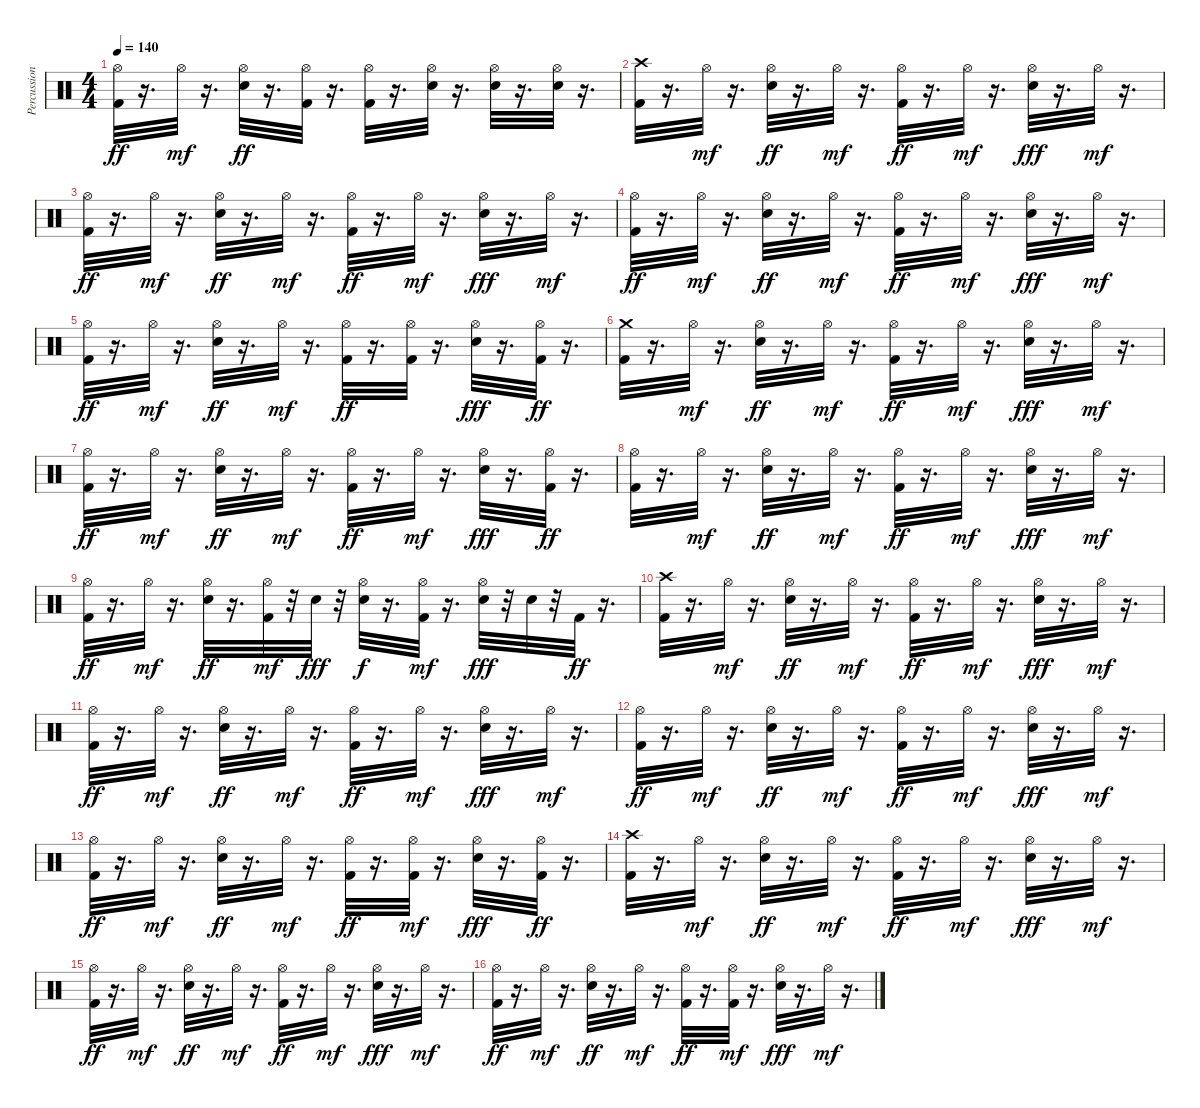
\track ("Percussion" "Percussion") {instrument percussion}
\staff {score}
\articulation defaults
\ts (4 4)
\tempo 140
\clef neutral
\ks c
("Kick (hit) 2" "Hi-Hat (open)").32{dy ff} r.16{d} "Hi-Hat (open)".32{dy mf} r.16{d} ("Electric Snare (hit)" "Hi-Hat (open)").32{dy ff} r.16{d} ("Kick (hit) 2" "Hi-Hat (open)").32 r.16{d} ("Kick (hit) 2" "Hi-Hat (open)").32 r.16{d} ("Electric Snare (hit)" "Hi-Hat (open)").32 r.16{d} ("Electric Snare (hit)" "Hi-Hat (open)").32 r.16{d} ("Electric Snare (hit)" "Hi-Hat (open)").32 r.16{d} |
("Kick (hit) 2" "Crash high (hit)").32 r.16{d} "Hi-Hat (open)".32{dy mf} r.16{d} ("Electric Snare (hit)" "Hi-Hat (open)").32{dy ff} r.16{d} "Hi-Hat (open)".32{dy mf} r.16{d} ("Kick (hit) 2" "Hi-Hat (open)").32{dy ff} r.16{d} "Hi-Hat (open)".32{dy mf} r.16{d} ("Electric Snare (hit)" "Hi-Hat (open)").32{dy fff} r.16{d} "Hi-Hat (open)".32{dy mf} r.16{d} |
("Kick (hit) 2" "Hi-Hat (open)").32{dy ff} r.16{d} "Hi-Hat (open)".32{dy mf} r.16{d} ("Electric Snare (hit)" "Hi-Hat (open)").32{dy ff} r.16{d} "Hi-Hat (open)".32{dy mf} r.16{d} ("Kick (hit) 2" "Hi-Hat (open)").32{dy ff} r.16{d} "Hi-Hat (open)".32{dy mf} r.16{d} ("Electric Snare (hit)" "Hi-Hat (open)").32{dy fff} r.16{d} "Hi-Hat (open)".32{dy mf} r.16{d} |
("Kick (hit) 2" "Hi-Hat (open)").32{dy ff} r.16{d} "Hi-Hat (open)".32{dy mf} r.16{d} ("Electric Snare (hit)" "Hi-Hat (open)").32{dy ff} r.16{d} "Hi-Hat (open)".32{dy mf} r.16{d} ("Kick (hit) 2" "Hi-Hat (open)").32{dy ff} r.16{d} "Hi-Hat (open)".32{dy mf} r.16{d} ("Electric Snare (hit)" "Hi-Hat (open)").32{dy fff} r.16{d} "Hi-Hat (open)".32{dy mf} r.16{d} |
("Kick (hit) 2" "Hi-Hat (open)").32{dy ff} r.16{d} "Hi-Hat (open)".32{dy mf} r.16{d} ("Electric Snare (hit)" "Hi-Hat (open)").32{dy ff} r.16{d} "Hi-Hat (open)".32{dy mf} r.16{d} ("Kick (hit) 2" "Hi-Hat (open)").32{dy ff} r.16{d} ("Hi-Hat (open)" "Kick (hit) 2").32 r.16{d} ("Electric Snare (hit)" "Hi-Hat (open)").32{dy fff} r.16{d} ("Hi-Hat (open)" "Kick (hit) 2").32{dy ff} r.16{d} |
("Kick (hit) 2" "Crash medium (hit)").32 r.16{d} "Hi-Hat (open)".32{dy mf} r.16{d} ("Electric Snare (hit)" "Hi-Hat (open)").32{dy ff} r.16{d} "Hi-Hat (open)".32{dy mf} r.16{d} ("Kick (hit) 2" "Hi-Hat (open)").32{dy ff} r.16{d} "Hi-Hat (open)".32{dy mf} r.16{d} ("Electric Snare (hit)" "Hi-Hat (open)").32{dy fff} r.16{d} "Hi-Hat (open)".32{dy mf} r.16{d} |
("Kick (hit) 2" "Hi-Hat (open)").32{dy ff} r.16{d} "Hi-Hat (open)".32{dy mf} r.16{d} ("Electric Snare (hit)" "Hi-Hat (open)").32{dy ff} r.16{d} "Hi-Hat (open)".32{dy mf} r.16{d} ("Kick (hit) 2" "Hi-Hat (open)").32{dy ff} r.16{d} "Hi-Hat (open)".32{dy mf} r.16{d} ("Electric Snare (hit)" "Hi-Hat (open)").32{dy fff} r.16{d} ("Hi-Hat (open)" "Kick (hit) 2").32{dy ff} r.16{d} |
("Kick (hit) 2" "Hi-Hat (open)").32 r.16{d} "Hi-Hat (open)".32{dy mf} r.16{d} ("Electric Snare (hit)" "Hi-Hat (open)").32{dy ff} r.16{d} "Hi-Hat (open)".32{dy mf} r.16{d} ("Kick (hit) 2" "Hi-Hat (open)").32{dy ff} r.16{d} "Hi-Hat (open)".32{dy mf} r.16{d} ("Electric Snare (hit)" "Hi-Hat (open)").32{dy fff} r.16{d} "Hi-Hat (open)".32{dy mf} r.16{d} |
("Kick (hit) 2" "Hi-Hat (open)").32{dy ff} r.16{d} "Hi-Hat (open)".32{dy mf} r.16{d} ("Electric Snare (hit)" "Hi-Hat (open)").32{dy ff} r.16{d} ("Kick (hit) 2" "Hi-Hat (open)").32{dy mf} r.32 "Electric Snare (hit)".32{dy fff} r.32 ("Electric Snare (hit)" "Hi-Hat (open)").32{dy f} r.16{d} ("Kick (hit) 2" "Hi-Hat (open)").32{dy mf} r.16{d} ("Electric Snare (hit)" "Hi-Hat (open)").32{dy fff} r.32 "Electric Snare (hit)".32 r.32 "Kick (hit) 2".32{dy ff} r.16{d} |
("Kick (hit) 2" "Crash high (hit)").32 r.16{d} "Hi-Hat (open)".32{dy mf} r.16{d} ("Electric Snare (hit)" "Hi-Hat (open)").32{dy ff} r.16{d} "Hi-Hat (open)".32{dy mf} r.16{d} ("Kick (hit) 2" "Hi-Hat (open)").32{dy ff} r.16{d} "Hi-Hat (open)".32{dy mf} r.16{d} ("Electric Snare (hit)" "Hi-Hat (open)").32{dy fff} r.16{d} "Hi-Hat (open)".32{dy mf} r.16{d} |
("Kick (hit) 2" "Hi-Hat (open)").32{dy ff} r.16{d} "Hi-Hat (open)".32{dy mf} r.16{d} ("Electric Snare (hit)" "Hi-Hat (open)").32{dy ff} r.16{d} "Hi-Hat (open)".32{dy mf} r.16{d} ("Kick (hit) 2" "Hi-Hat (open)").32{dy ff} r.16{d} "Hi-Hat (open)".32{dy mf} r.16{d} ("Electric Snare (hit)" "Hi-Hat (open)").32{dy fff} r.16{d} "Hi-Hat (open)".32{dy mf} r.16{d} |
("Kick (hit) 2" "Hi-Hat (open)").32{dy ff} r.16{d} "Hi-Hat (open)".32{dy mf} r.16{d} ("Electric Snare (hit)" "Hi-Hat (open)").32{dy ff} r.16{d} "Hi-Hat (open)".32{dy mf} r.16{d} ("Kick (hit) 2" "Hi-Hat (open)").32{dy ff} r.16{d} "Hi-Hat (open)".32{dy mf} r.16{d} ("Electric Snare (hit)" "Hi-Hat (open)").32{dy fff} r.16{d} "Hi-Hat (open)".32{dy mf} r.16{d} |
("Kick (hit) 2" "Hi-Hat (open)").32{dy ff} r.16{d} "Hi-Hat (open)".32{dy mf} r.16{d} ("Electric Snare (hit)" "Hi-Hat (open)").32{dy ff} r.16{d} "Hi-Hat (open)".32{dy mf} r.16{d} ("Kick (hit) 2" "Hi-Hat (open)").32{dy ff} r.16{d} ("Kick (hit) 2" "Hi-Hat (open)").32{dy mf} r.16{d} ("Electric Snare (hit)" "Hi-Hat (open)").32{dy fff} r.16{d} ("Hi-Hat (open)" "Kick (hit) 2").32{dy ff} r.16{d} |
("Kick (hit) 2" "Crash high (hit)").32 r.16{d} "Hi-Hat (open)".32{dy mf} r.16{d} ("Electric Snare (hit)" "Hi-Hat (open)").32{dy ff} r.16{d} "Hi-Hat (open)".32{dy mf} r.16{d} ("Kick (hit) 2" "Hi-Hat (open)").32{dy ff} r.16{d} "Hi-Hat (open)".32{dy mf} r.16{d} ("Electric Snare (hit)" "Hi-Hat (open)").32{dy fff} r.16{d} "Hi-Hat (open)".32{dy mf} r.16{d} |
("Kick (hit) 2" "Hi-Hat (open)").32{dy ff} r.16{d} "Hi-Hat (open)".32{dy mf} r.16{d} ("Electric Snare (hit)" "Hi-Hat (open)").32{dy ff} r.16{d} "Hi-Hat (open)".32{dy mf} r.16{d} ("Kick (hit) 2" "Hi-Hat (open)").32{dy ff} r.16{d} "Hi-Hat (open)".32{dy mf} r.16{d} ("Electric Snare (hit)" "Hi-Hat (open)").32{dy fff} r.16{d} "Hi-Hat (open)".32{dy mf} r.16{d} |
("Kick (hit) 2" "Hi-Hat (open)").32{dy ff} r.16{d} "Hi-Hat (open)".32{dy mf} r.16{d} ("Electric Snare (hit)" "Hi-Hat (open)").32{dy ff} r.16{d} "Hi-Hat (open)".32{dy mf} r.16{d} ("Kick (hit) 2" "Hi-Hat (open)").32{dy ff} r.16{d} ("Kick (hit) 2" "Hi-Hat (open)").32{dy mf} r.16{d} ("Electric Snare (hit)" "Hi-Hat (open)").32{dy fff} r.16{d} "Hi-Hat (open)".32{dy mf} r.16{d}
